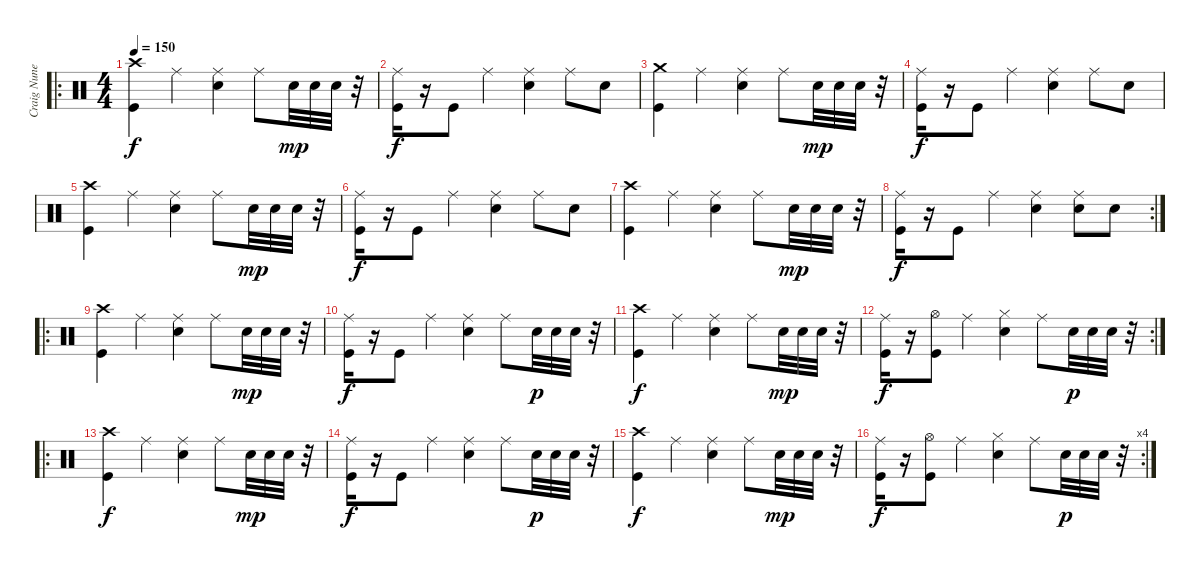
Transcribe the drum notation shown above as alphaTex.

\track ("Craig Nunenmacher (Drums)" "Craig Nune") {instrument percussion}
\staff {score}
\articulation defaults
\ro
\ts (4 4)
\tempo 150
\clef neutral
\ks c
("Crash high (hit)" "Kick (hit)").4{dy f} "Ride (middle)".4 ("Ride (middle)" "Snare (hit) 2").4 "Ride (middle)".8 "Snare (hit) 2".32{dy mp} "Snare (hit) 2".32 "Snare (hit) 2".32 r.32 |
("Ride (middle)" "Kick (hit)").16{dy f} r.16 "Kick (hit)".8 "Ride (middle)".4 ("Ride (middle)" "Snare (hit) 2").4 "Ride (middle)".8 "Snare (hit) 2".8 |
("Crash medium (hit)" "Kick (hit)").4 "Ride (middle)".4 ("Ride (middle)" "Snare (hit) 2").4 "Ride (middle)".8 "Snare (hit) 2".32{dy mp} "Snare (hit) 2".32 "Snare (hit) 2".32 r.32 |
("Ride (middle)" "Kick (hit)").16{dy f} r.16 "Kick (hit)".8 "Ride (middle)".4 ("Ride (middle)" "Snare (hit) 2").4 "Ride (middle)".8 "Snare (hit) 2".8 |
("Crash high (hit)" "Kick (hit)").4 "Ride (middle)".4 ("Ride (middle)" "Snare (hit) 2").4 "Ride (middle)".8 "Snare (hit) 2".32{dy mp} "Snare (hit) 2".32 "Snare (hit) 2".32 r.32 |
("Ride (middle)" "Kick (hit)").16{dy f} r.16 "Kick (hit)".8 "Ride (middle)".4 ("Ride (middle)" "Snare (hit) 2").4 "Ride (middle)".8 "Snare (hit) 2".8 |
("Crash high (hit)" "Kick (hit)").4 "Ride (middle)".4 ("Ride (middle)" "Snare (hit) 2").4 "Ride (middle)".8 "Snare (hit) 2".32{dy mp} "Snare (hit) 2".32 "Snare (hit) 2".32 r.32 |
\rc 2
("Ride (middle)" "Kick (hit)").16{dy f} r.16 "Kick (hit)".8 "Ride (middle)".4 ("Ride (middle)" "Snare (hit) 2").4 ("Ride (middle)" "Snare (hit) 2").8 "Snare (hit) 2".8 |
\ro
("Crash high (hit)" "Kick (hit)").4 "Ride (middle)".4 ("Ride (middle)" "Snare (hit) 2").4 "Ride (middle)".8 "Snare (hit) 2".32{dy mp} "Snare (hit) 2".32 "Snare (hit) 2".32 r.32 |
("Ride (middle)" "Kick (hit)").16{dy f} r.16 "Kick (hit)".8 "Ride (middle)".4 ("Ride (middle)" "Snare (hit) 2").4 "Ride (middle)".8 "Snare (hit) 2".32{dy p} "Snare (hit) 2".32 "Snare (hit) 2".32 r.32 |
("Crash high (hit)" "Kick (hit)").4{dy f} "Ride (middle)".4 ("Ride (middle)" "Snare (hit) 2").4 "Ride (middle)".8 "Snare (hit) 2".32{dy mp} "Snare (hit) 2".32 "Snare (hit) 2".32 r.32 |
\rc 2
("Ride (middle)" "Kick (hit)").16{dy f} r.16 ("Hi-Hat (open)" "Kick (hit)").8 "Ride (middle)".4 ("Hi-Hat (closed)" "Snare (hit) 2").4 "Ride (middle)".8 "Snare (hit) 2".32{dy p} "Snare (hit) 2".32 "Snare (hit) 2".32 r.32 |
\ro
("Crash high (hit)" "Kick (hit)").4{dy f} "Ride (middle)".4 ("Ride (middle)" "Snare (hit) 2").4 "Ride (middle)".8 "Snare (hit) 2".32{dy mp} "Snare (hit) 2".32 "Snare (hit) 2".32 r.32 |
("Ride (middle)" "Kick (hit)").16{dy f} r.16 "Kick (hit)".8 "Ride (middle)".4 ("Ride (middle)" "Snare (hit) 2").4 "Ride (middle)".8 "Snare (hit) 2".32{dy p} "Snare (hit) 2".32 "Snare (hit) 2".32 r.32 |
("Crash high (hit)" "Kick (hit)").4{dy f} "Ride (middle)".4 ("Ride (middle)" "Snare (hit) 2").4 "Ride (middle)".8 "Snare (hit) 2".32{dy mp} "Snare (hit) 2".32 "Snare (hit) 2".32 r.32 |
\rc 4
("Ride (middle)" "Kick (hit)").16{dy f} r.16 ("Hi-Hat (open)" "Kick (hit)").8 "Ride (middle)".4 ("Hi-Hat (closed)" "Snare (hit) 2").4 "Ride (middle)".8 "Snare (hit) 2".32{dy p} "Snare (hit) 2".32 "Snare (hit) 2".32 r.32
